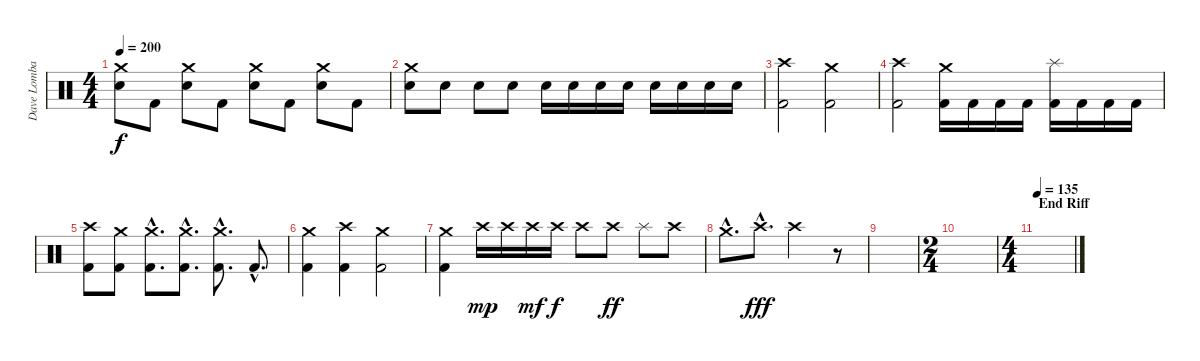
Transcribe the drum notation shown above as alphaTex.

\track ("Dave Lombardo - Drums" "Dave Lomba") {instrument percussion}
\staff {score}
\articulation defaults
\ts (4 4)
\tempo 200
\clef neutral
\ks c
("Crash medium (hit)" "Electric Snare (hit)").8{dy f} "Kick (hit) 2".8 ("Crash medium (hit)" "Electric Snare (hit)").8 "Kick (hit) 2".8 ("Crash medium (hit)" "Electric Snare (hit)").8 "Kick (hit) 2".8 ("Crash medium (hit)" "Electric Snare (hit)").8 "Kick (hit) 2".8 |
("Crash medium (hit)" "Electric Snare (hit)").8 "Electric Snare (hit)".8 "Electric Snare (hit)".8 "Electric Snare (hit)".8 "Electric Snare (hit)".16 "Electric Snare (hit)".16 "Electric Snare (hit)".16 "Electric Snare (hit)".16 "Electric Snare (hit)".16 "Electric Snare (hit)".16 "Electric Snare (hit)".16 "Electric Snare (hit)".16 |
("Crash high (hit)" "Kick (hit) 2").2 ("Crash medium (hit)" "Kick (hit) 2").2 |
("Crash high (hit)" "Kick (hit) 2").2 ("Crash medium (hit)" "Kick (hit) 2").16 "Kick (hit) 2".16 "Kick (hit) 2".16 "Kick (hit) 2".16 ("Splash (hit)" "Kick (hit) 2").16 "Kick (hit) 2".16 "Kick (hit) 2".16 "Kick (hit) 2".16 |
("Crash high (hit)" "Kick (hit) 2").8 ("Crash medium (hit)" "Kick (hit) 2").8 ("Crash medium (hit)"{hac} "Kick (hit) 2"{hac}).8{d} ("Crash medium (hit)"{hac} "Kick (hit) 2"{hac}).8{d} ("Crash medium (hit)"{hac} "Kick (hit) 2"{hac}).8{d} "Kick (hit) 2"{hac}.8{d} |
("Crash medium (hit)" "Kick (hit) 2").4 ("Crash high (hit)" "Kick (hit) 2").4 ("Crash medium (hit)" "Kick (hit) 2").2 |
("Crash medium (hit)" "Kick (hit) 2").4 "Crash high (hit)".16{dy mp} "Crash high (hit)".16 "Crash high (hit)".16{dy mf} "Crash high (hit)".16{dy f} "Crash high (hit)".8 "Crash high (hit)".8{dy ff} "Splash (hit)".8 "Crash high (hit)".8 |
"Crash medium (hit)"{hac}.8{d} "Crash high (hit)"{hac}.8{d dy fff} "Crash high (hit)".2 r.8 |
|
\ts (2 4)
|
\ts (4 4)
\section ("" "End Riff")
\tempo 135
